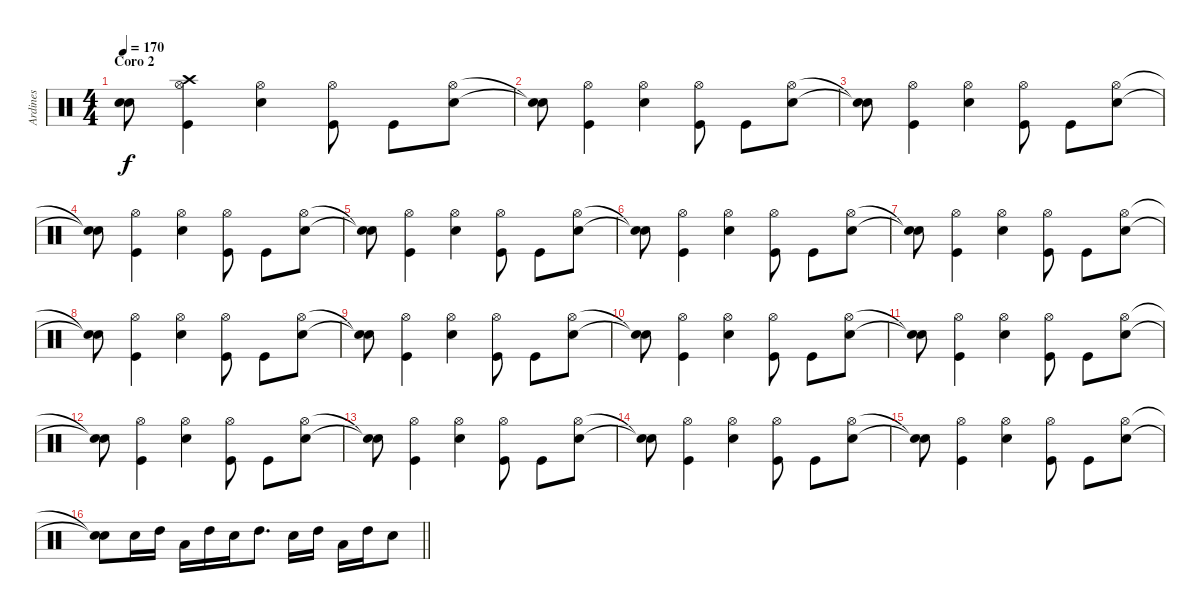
\track ("Ardines" "Ardines") {instrument percussion}
\staff {score}
\articulation defaults
\ts (4 4)
\section ("" "Coro 2")
\tempo 170
\clef neutral
\ks c
("Snare (hit)"{t} "Snare (hit)"{t}).8{dy f} ("Kick (hit)" "Hi-Hat (open)" "Crash high (hit)").4 ("Snare (hit) 2" "Hi-Hat (open)").4 ("Kick (hit)" "Hi-Hat (open)").8 "Kick (hit)".8 ("Snare (hit) 2" "Hi-Hat (open)").8 |
("Snare (hit)"{t} "Snare (hit)"{t}).8 ("Kick (hit)" "Hi-Hat (open)").4 ("Snare (hit) 2" "Hi-Hat (open)").4 ("Kick (hit)" "Hi-Hat (open)").8 "Kick (hit)".8 ("Snare (hit) 2" "Hi-Hat (open)").8 |
("Snare (hit)"{t} "Snare (hit)"{t}).8 ("Kick (hit)" "Hi-Hat (open)").4 ("Snare (hit) 2" "Hi-Hat (open)").4 ("Kick (hit)" "Hi-Hat (open)").8 "Kick (hit)".8 ("Snare (hit) 2" "Hi-Hat (open)").8 |
("Snare (hit)"{t} "Snare (hit)"{t}).8 ("Kick (hit)" "Hi-Hat (open)").4 ("Snare (hit) 2" "Hi-Hat (open)").4 ("Kick (hit)" "Hi-Hat (open)").8 "Kick (hit)".8 ("Snare (hit) 2" "Hi-Hat (open)").8 |
("Snare (hit)"{t} "Snare (hit)"{t}).8 ("Kick (hit)" "Hi-Hat (open)").4 ("Snare (hit) 2" "Hi-Hat (open)").4 ("Kick (hit)" "Hi-Hat (open)").8 "Kick (hit)".8 ("Snare (hit) 2" "Hi-Hat (open)").8 |
("Snare (hit)"{t} "Snare (hit)"{t}).8 ("Kick (hit)" "Hi-Hat (open)").4 ("Snare (hit) 2" "Hi-Hat (open)").4 ("Kick (hit)" "Hi-Hat (open)").8 "Kick (hit)".8 ("Snare (hit) 2" "Hi-Hat (open)").8 |
("Snare (hit)"{t} "Snare (hit)"{t}).8 ("Kick (hit)" "Hi-Hat (open)").4 ("Snare (hit) 2" "Hi-Hat (open)").4 ("Kick (hit)" "Hi-Hat (open)").8 "Kick (hit)".8 ("Snare (hit) 2" "Hi-Hat (open)").8 |
("Snare (hit)"{t} "Snare (hit)"{t}).8 ("Kick (hit)" "Hi-Hat (open)").4 ("Snare (hit) 2" "Hi-Hat (open)").4 ("Kick (hit)" "Hi-Hat (open)").8 "Kick (hit)".8 ("Snare (hit) 2" "Hi-Hat (open)").8 |
("Snare (hit)"{t} "Snare (hit)"{t}).8 ("Kick (hit)" "Hi-Hat (open)").4 ("Snare (hit) 2" "Hi-Hat (open)").4 ("Kick (hit)" "Hi-Hat (open)").8 "Kick (hit)".8 ("Snare (hit) 2" "Hi-Hat (open)").8 |
("Snare (hit)"{t} "Snare (hit)"{t}).8 ("Kick (hit)" "Hi-Hat (open)").4 ("Snare (hit) 2" "Hi-Hat (open)").4 ("Kick (hit)" "Hi-Hat (open)").8 "Kick (hit)".8 ("Snare (hit) 2" "Hi-Hat (open)").8 |
("Snare (hit)"{t} "Snare (hit)"{t}).8 ("Kick (hit)" "Hi-Hat (open)").4 ("Snare (hit) 2" "Hi-Hat (open)").4 ("Kick (hit)" "Hi-Hat (open)").8 "Kick (hit)".8 ("Snare (hit) 2" "Hi-Hat (open)").8 |
("Snare (hit)"{t} "Snare (hit)"{t}).8 ("Kick (hit)" "Hi-Hat (open)").4 ("Snare (hit) 2" "Hi-Hat (open)").4 ("Kick (hit)" "Hi-Hat (open)").8 "Kick (hit)".8 ("Snare (hit) 2" "Hi-Hat (open)").8 |
("Snare (hit)"{t} "Snare (hit)"{t}).8 ("Kick (hit)" "Hi-Hat (open)").4 ("Snare (hit) 2" "Hi-Hat (open)").4 ("Kick (hit)" "Hi-Hat (open)").8 "Kick (hit)".8 ("Snare (hit) 2" "Hi-Hat (open)").8 |
("Snare (hit)"{t} "Snare (hit)"{t}).8 ("Kick (hit)" "Hi-Hat (open)").4 ("Snare (hit) 2" "Hi-Hat (open)").4 ("Kick (hit)" "Hi-Hat (open)").8 "Kick (hit)".8 ("Snare (hit) 2" "Hi-Hat (open)").8 |
("Snare (hit)"{t} "Snare (hit)"{t}).8 ("Kick (hit)" "Hi-Hat (open)").4 ("Snare (hit) 2" "Hi-Hat (open)").4 ("Kick (hit)" "Hi-Hat (open)").8 "Kick (hit)".8 ("Snare (hit) 2" "Hi-Hat (open)").8 |
\barLineRight lightlight
("Snare (hit)"{t} "Snare (hit)"{t}).8 "Snare (hit) 2".16 "High Tom (hit)".16 "Low Tom (hit)".16 "High Tom (hit)".16 "Snare (hit) 2".16 "High Tom (hit)".8{d} "Snare (hit) 2".16 "High Tom (hit)".16 "Low Tom (hit)".16 "High Tom (hit)".16 "Snare (hit) 2".8
